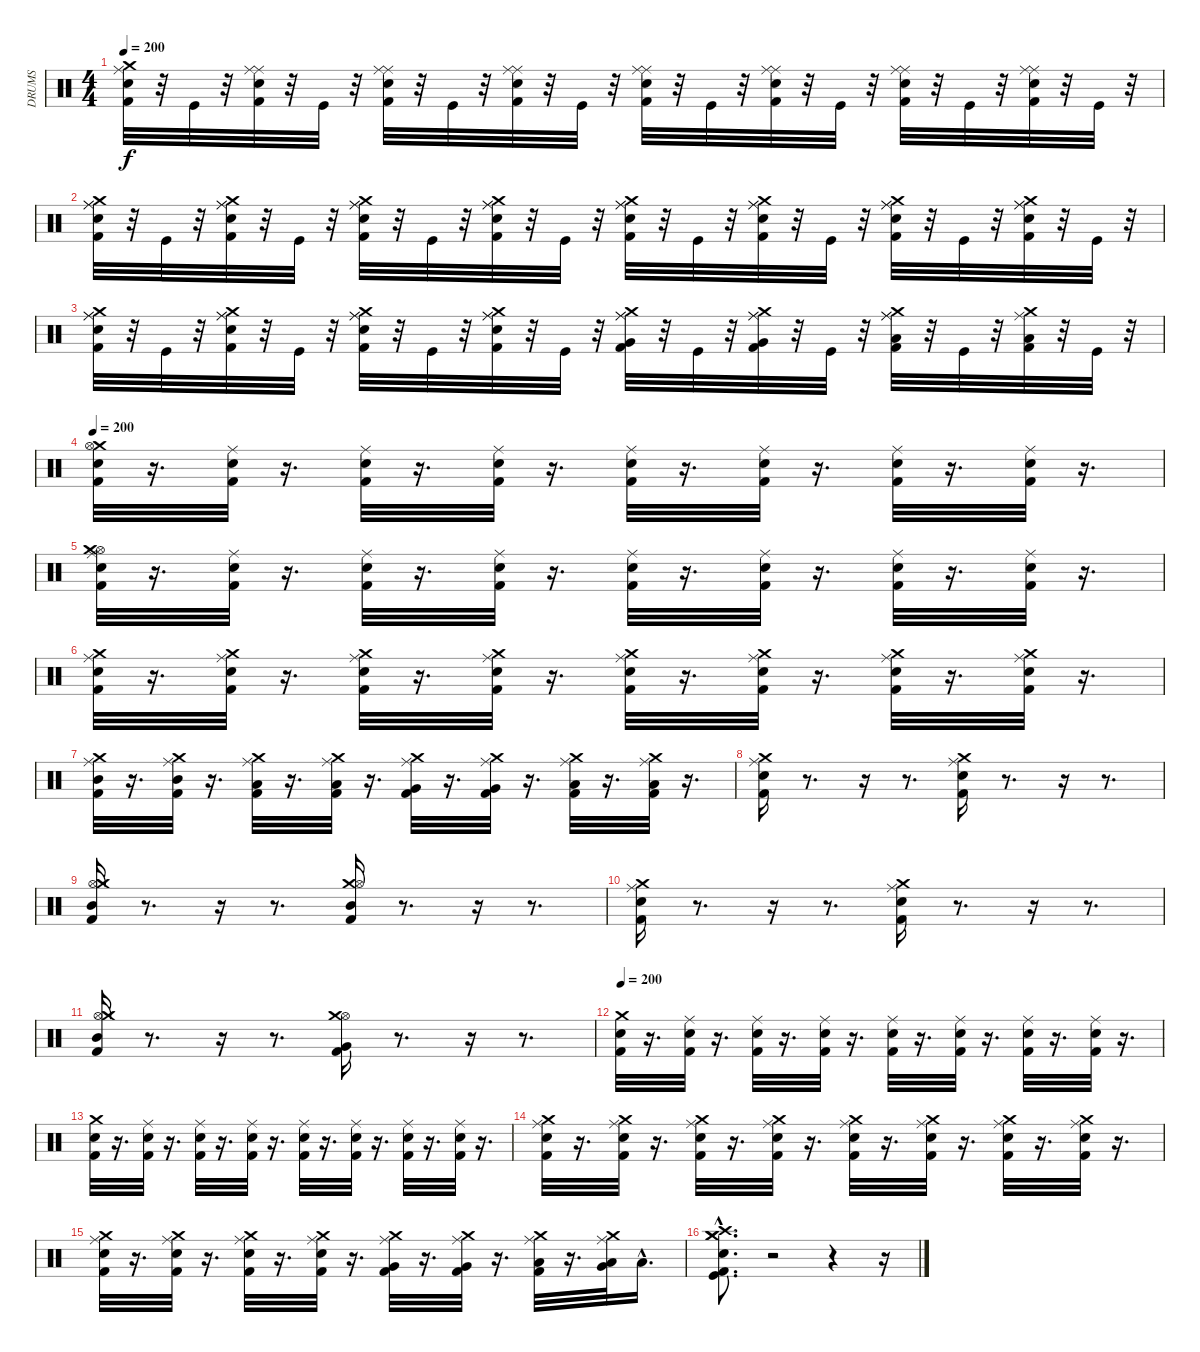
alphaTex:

\track ("DRUMS" "DRUMS") {instrument percussion}
\staff {score}
\articulation defaults
\ts (4 4)
\tempo 200
\clef neutral
\ks c
("Ride (middle)" "Kick (hit) 2" "Snare (hit) 2" "Crash medium (hit)").32{dy f} r.32 "Kick (hit)".32 r.32 ("Ride (middle)" "Ride (middle)" "Snare (hit) 2" "Kick (hit) 2").32 r.32 "Kick (hit)".32 r.32 ("Kick (hit) 2" "Snare (hit) 2" "Ride (middle)" "Ride (middle)").32 r.32 "Kick (hit)".32 r.32 ("Snare (hit) 2" "Ride (middle)" "Kick (hit) 2" "Ride (middle)").32 r.32 "Kick (hit)".32 r.32 ("Snare (hit) 2" "Ride (middle)" "Kick (hit) 2" "Ride (middle)").32 r.32 "Kick (hit)".32 r.32 ("Snare (hit) 2" "Ride (middle)" "Ride (middle)" "Kick (hit) 2").32 r.32 "Kick (hit)".32 r.32 ("Kick (hit) 2" "Ride (middle)" "Snare (hit) 2" "Ride (middle)").32 r.32 "Kick (hit)".32 r.32 ("Ride (middle)" "Ride (middle)" "Kick (hit) 2" "Snare (hit) 2").32 r.32 "Kick (hit)".32 r.32 |
("Snare (hit) 2" "Kick (hit) 2" "Ride (middle)" "Crash medium (hit)" "Ride (middle)").32 r.32 "Kick (hit)".32 r.32 ("Ride (middle)" "Snare (hit) 2" "Kick (hit) 2" "Crash medium (hit)" "Ride (middle)").32 r.32 "Kick (hit)".32 r.32 ("Kick (hit) 2" "Ride (middle)" "Ride (middle)" "Crash medium (hit)" "Snare (hit) 2").32 r.32 "Kick (hit)".32 r.32 ("Ride (middle)" "Kick (hit) 2" "Snare (hit) 2" "Ride (middle)" "Crash medium (hit)").32 r.32 "Kick (hit)".32 r.32 ("Ride (middle)" "Snare (hit) 2" "Crash medium (hit)" "Ride (middle)" "Kick (hit) 2").32 r.32 "Kick (hit)".32 r.32 ("Snare (hit) 2" "Ride (middle)" "Crash medium (hit)" "Kick (hit) 2" "Ride (middle)").32 r.32 "Kick (hit)".32 r.32 ("Kick (hit) 2" "Crash medium (hit)" "Ride (middle)" "Ride (middle)" "Snare (hit) 2").32 r.32 "Kick (hit)".32 r.32 ("Snare (hit) 2" "Crash medium (hit)" "Ride (middle)" "Kick (hit) 2" "Ride (middle)").32 r.32 "Kick (hit)".32 r.32 |
("Snare (hit) 2" "Kick (hit) 2" "Ride (middle)" "Ride (middle)" "Crash medium (hit)").32 r.32 "Kick (hit)".32 r.32 ("Snare (hit) 2" "Ride (middle)" "Kick (hit) 2" "Crash medium (hit)" "Ride (middle)").32 r.32 "Kick (hit)".32 r.32 ("Ride (middle)" "Ride (middle)" "Crash medium (hit)" "Kick (hit) 2" "Snare (hit) 2").32 r.32 "Kick (hit)".32 r.32 ("Snare (hit) 2" "Ride (middle)" "Crash medium (hit)" "Kick (hit) 2" "Ride (middle)").32 r.32 "Kick (hit)".32 r.32 ("Ride (middle)" "Kick (hit) 2" "Ride (middle)" "Crash medium (hit)" "Very Low Tom (hit)").32 r.32 "Kick (hit)".32 r.32 ("Crash medium (hit)" "Kick (hit) 2" "Very Low Tom (hit)" "Ride (middle)" "Ride (middle)").32 r.32 "Kick (hit)".32 r.32 ("Low Floor Tom (hit)" "Ride (middle)" "Crash medium (hit)" "Kick (hit) 2" "Ride (middle)").32 r.32 "Kick (hit)".32 r.32 ("Low Floor Tom (hit)" "Crash medium (hit)" "Kick (hit) 2" "Ride (middle)").32 r.32 "Kick (hit)".32 r.32 |
\tempo 200
("Kick (hit) 2" "Snare (hit) 2" "Crash medium (hit)" "Hi-Hat (open)").32 r.16{d} ("Snare (hit) 2" "Ride (middle)" "Kick (hit) 2").32 r.16{d} ("Ride (middle)" "Snare (hit) 2" "Kick (hit) 2").32 r.16{d} ("Ride (middle)" "Kick (hit) 2" "Snare (hit) 2").32 r.16{d} ("Ride (middle)" "Snare (hit) 2" "Kick (hit) 2").32 r.16{d} ("Kick (hit) 2" "Snare (hit) 2" "Ride (middle)").32 r.16{d} ("Snare (hit) 2" "Ride (middle)" "Kick (hit) 2").32 r.16{d} ("Kick (hit) 2" "Snare (hit) 2" "Ride (middle)").32 r.16{d} |
("Kick (hit) 2" "Hi-Hat (open)" "Snare (hit) 2" "Crash medium (hit)" "Ride (middle)").32 r.16{d} ("Ride (middle)" "Snare (hit) 2" "Kick (hit) 2").32 r.16{d} ("Snare (hit) 2" "Kick (hit) 2" "Ride (middle)").32 r.16{d} ("Snare (hit) 2" "Kick (hit) 2" "Ride (middle)").32 r.16{d} ("Snare (hit) 2" "Kick (hit) 2" "Ride (middle)").32 r.16{d} ("Snare (hit) 2" "Kick (hit) 2" "Ride (middle)").32 r.16{d} ("Kick (hit) 2" "Snare (hit) 2" "Ride (middle)").32 r.16{d} ("Ride (middle)" "Kick (hit) 2" "Snare (hit) 2").32 r.16{d} |
("Kick (hit) 2" "Snare (hit) 2" "Crash medium (hit)" "Ride (middle)").32 r.16{d} ("Ride (middle)" "Snare (hit) 2" "Kick (hit) 2" "Crash medium (hit)").32 r.16{d} ("Kick (hit) 2" "Ride (middle)" "Crash medium (hit)" "Snare (hit) 2").32 r.16{d} ("Ride (middle)" "Crash medium (hit)" "Snare (hit) 2" "Kick (hit) 2").32 r.16{d} ("Crash medium (hit)" "Ride (middle)" "Snare (hit) 2" "Kick (hit) 2").32 r.16{d} ("Ride (middle)" "Crash medium (hit)" "Kick (hit) 2" "Snare (hit) 2").32 r.16{d} ("Snare (hit) 2" "Crash medium (hit)" "Ride (middle)" "Kick (hit) 2").32 r.16{d} ("Ride (middle)" "Crash medium (hit)" "Kick (hit) 2" "Snare (hit) 2").32 r.16{d} |
("Ride (middle)" "Kick (hit) 2" "Mid Tom (hit)" "Crash medium (hit)").32 r.16{d} ("Ride (middle)" "Kick (hit) 2" "Crash medium (hit)" "Mid Tom (hit)").32 r.16{d} ("Crash medium (hit)" "Low Tom (hit)" "Ride (middle)" "Kick (hit) 2").32 r.16{d} ("Crash medium (hit)" "Kick (hit) 2" "Ride (middle)" "Low Tom (hit)").32 r.16{d} ("Ride (middle)" "Kick (hit) 2" "Very Low Tom (hit)" "Crash medium (hit)").32 r.16{d} ("Very Low Tom (hit)" "Ride (middle)" "Kick (hit) 2" "Crash medium (hit)").32 r.16{d} ("Ride (middle)" "Low Floor Tom (hit)" "Crash medium (hit)" "Kick (hit) 2").32 r.16{d} ("Ride (middle)" "Low Floor Tom (hit)" "Kick (hit) 2" "Crash medium (hit)").32 r.16{d} |
("Crash medium (hit)" "Kick (hit) 2" "Ride (middle)" "Snare (hit) 2").16 r.8{d} r.16 r.8{d} ("Snare (hit) 2" "Ride (middle)" "Crash medium (hit)" "Kick (hit) 2").16 r.8{d} r.16 r.8{d} |
("Hi-Hat (open)" "Mid Tom (hit)" "Crash medium (hit)" "Kick (hit) 2").16 r.8{d} r.16 r.8{d} ("Kick (hit) 2" "Mid Tom (hit)" "Crash medium (hit)" "Hi-Hat (open)").16 r.8{d} r.16 r.8{d} |
("Crash medium (hit)" "Kick (hit) 2" "Snare (hit) 2" "Ride (middle)").16 r.8{d} r.16 r.8{d} ("Snare (hit) 2" "Kick (hit) 2" "Crash medium (hit)" "Ride (middle)").16 r.8{d} r.16 r.8{d} |
("Hi-Hat (open)" "Mid Tom (hit)" "Crash medium (hit)" "Kick (hit) 2").16 r.8{d} r.16 r.8{d} ("Hi-Hat (open)" "Kick (hit) 2" "Very Low Tom (hit)" "Crash medium (hit)").16 r.8{d} r.16 r.8{d} |
\tempo 200
("Kick (hit) 2" "Snare (hit) 2" "Crash medium (hit)").32 r.16{d} ("Ride (middle)" "Snare (hit) 2" "Kick (hit) 2").32 r.16{d} ("Ride (middle)" "Snare (hit) 2" "Kick (hit) 2").32 r.16{d} ("Kick (hit) 2" "Snare (hit) 2" "Ride (middle)").32 r.16{d} ("Snare (hit) 2" "Kick (hit) 2" "Ride (middle)").32 r.16{d} ("Snare (hit) 2" "Kick (hit) 2" "Ride (middle)").32 r.16{d} ("Snare (hit) 2" "Ride (middle)" "Kick (hit) 2").32 r.16{d} ("Ride (middle)" "Snare (hit) 2" "Kick (hit) 2").32 r.16{d} |
("Snare (hit) 2" "Kick (hit) 2" "Crash medium (hit)").32 r.16{d} ("Snare (hit) 2" "Kick (hit) 2" "Ride (middle)").32 r.16{d} ("Kick (hit) 2" "Snare (hit) 2" "Ride (middle)").32 r.16{d} ("Snare (hit) 2" "Kick (hit) 2" "Ride (middle)").32 r.16{d} ("Ride (middle)" "Snare (hit) 2" "Kick (hit) 2").32 r.16{d} ("Kick (hit) 2" "Snare (hit) 2" "Ride (middle)").32 r.16{d} ("Kick (hit) 2" "Snare (hit) 2" "Ride (middle)").32 r.16{d} ("Kick (hit) 2" "Ride (middle)" "Snare (hit) 2").32 r.16{d} |
("Ride (middle)" "Crash medium (hit)" "Snare (hit) 2" "Kick (hit) 2").32 r.16{d} ("Ride (middle)" "Crash medium (hit)" "Kick (hit) 2" "Snare (hit) 2").32 r.16{d} ("Snare (hit) 2" "Ride (middle)" "Kick (hit) 2" "Crash medium (hit)").32 r.16{d} ("Kick (hit) 2" "Ride (middle)" "Snare (hit) 2" "Crash medium (hit)").32 r.16{d} ("Kick (hit) 2" "Ride (middle)" "Snare (hit) 2" "Crash medium (hit)").32 r.16{d} ("Ride (middle)" "Snare (hit) 2" "Crash medium (hit)" "Kick (hit) 2").32 r.16{d} ("Kick (hit) 2" "Snare (hit) 2" "Ride (middle)" "Crash medium (hit)").32 r.16{d} ("Snare (hit) 2" "Kick (hit) 2" "Crash medium (hit)" "Ride (middle)").32 r.16{d} |
("Snare (hit) 2" "Kick (hit) 2" "Crash medium (hit)" "Ride (middle)").32 r.16{d} ("Snare (hit) 2" "Ride (middle)" "Crash medium (hit)" "Kick (hit) 2").32 r.16{d} ("Kick (hit) 2" "Ride (middle)" "Snare (hit) 2" "Crash medium (hit)").32 r.16{d} ("Kick (hit) 2" "Ride (middle)" "Snare (hit) 2" "Crash medium (hit)").32 r.16{d} ("Crash medium (hit)" "Ride (middle)" "Very Low Tom (hit)" "Kick (hit) 2").32 r.16{d} ("Very Low Tom (hit)" "Ride (middle)" "Kick (hit) 2" "Crash medium (hit)").32 r.16{d} ("Low Tom (hit)" "Kick (hit) 2" "Ride (middle)" "Crash medium (hit)").32 r.16{d} ("Very Low Tom (hit)" "Ride (middle)" "Low Floor Tom (hit)" "Crash medium (hit)").32 "Low Floor Tom (hit)"{hac}.16{d} |
("Crash medium (hit)"{hac} "Kick (hit) 2"{hac} "Crash medium (hit)"{hac} "Kick (hit)"{hac} "Crash high (hit)"{hac} "Snare (hit) 2"{hac}).8{d} r.2 r.4 r.16
